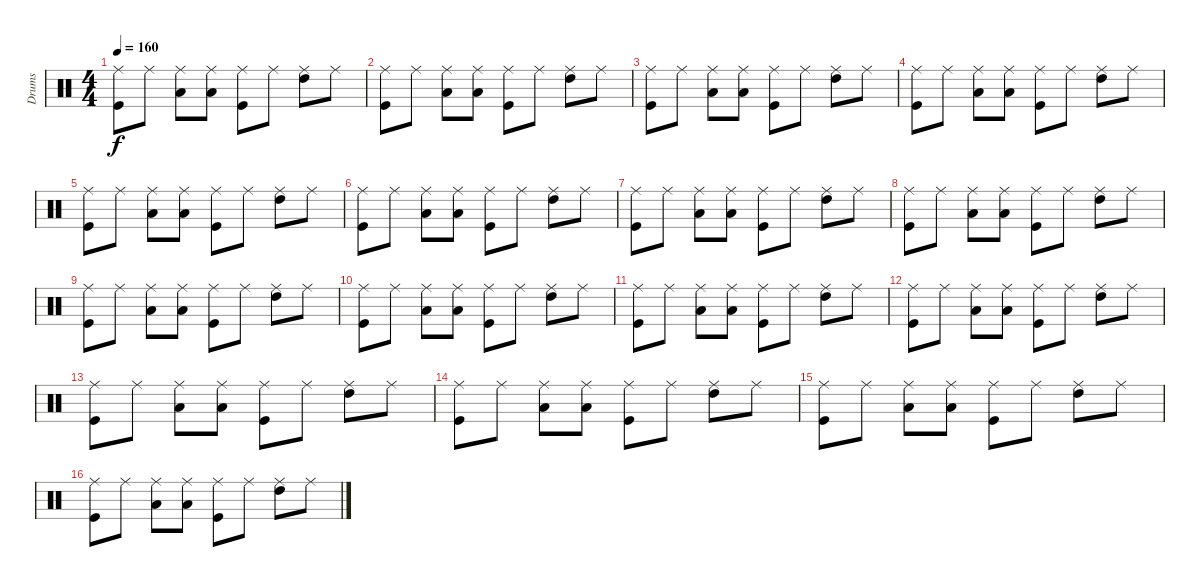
\track ("Drums" "Drums") {instrument percussion}
\staff {score}
\articulation defaults
\ts (4 4)
\tempo 160
\clef neutral
\ks c
("Ride (middle)" "Kick (hit)").8{dy f} "Ride (middle)".8 ("Ride (middle)" "Low Floor Tom (hit)").8 ("Ride (middle)" "Low Floor Tom (hit)").8 ("Ride (middle)" "Kick (hit)").8 "Ride (middle)".8 ("Ride (middle)" "High Tom (hit)").8 "Ride (middle)".8 |
("Ride (middle)" "Kick (hit)").8 "Ride (middle)".8 ("Ride (middle)" "Low Floor Tom (hit)").8 ("Ride (middle)" "Low Floor Tom (hit)").8 ("Ride (middle)" "Kick (hit)").8 "Ride (middle)".8 ("Ride (middle)" "High Tom (hit)").8 "Ride (middle)".8 |
("Ride (middle)" "Kick (hit)").8 "Ride (middle)".8 ("Ride (middle)" "Low Floor Tom (hit)").8 ("Ride (middle)" "Low Floor Tom (hit)").8 ("Ride (middle)" "Kick (hit)").8 "Ride (middle)".8 ("Ride (middle)" "High Tom (hit)").8 "Ride (middle)".8 |
("Ride (middle)" "Kick (hit)").8 "Ride (middle)".8 ("Ride (middle)" "Low Floor Tom (hit)").8 ("Ride (middle)" "Low Floor Tom (hit)").8 ("Ride (middle)" "Kick (hit)").8 "Ride (middle)".8 ("Ride (middle)" "High Tom (hit)").8 "Ride (middle)".8 |
("Ride (middle)" "Kick (hit)").8 "Ride (middle)".8 ("Ride (middle)" "Low Floor Tom (hit)").8 ("Ride (middle)" "Low Floor Tom (hit)").8 ("Ride (middle)" "Kick (hit)").8 "Ride (middle)".8 ("Ride (middle)" "High Tom (hit)").8 "Ride (middle)".8 |
("Ride (middle)" "Kick (hit)").8 "Ride (middle)".8 ("Ride (middle)" "Low Floor Tom (hit)").8 ("Ride (middle)" "Low Floor Tom (hit)").8 ("Ride (middle)" "Kick (hit)").8 "Ride (middle)".8 ("Ride (middle)" "High Tom (hit)").8 "Ride (middle)".8 |
("Ride (middle)" "Kick (hit)").8 "Ride (middle)".8 ("Ride (middle)" "Low Floor Tom (hit)").8 ("Ride (middle)" "Low Floor Tom (hit)").8 ("Ride (middle)" "Kick (hit)").8 "Ride (middle)".8 ("Ride (middle)" "High Tom (hit)").8 "Ride (middle)".8 |
("Ride (middle)" "Kick (hit)").8 "Ride (middle)".8 ("Ride (middle)" "Low Floor Tom (hit)").8 ("Ride (middle)" "Low Floor Tom (hit)").8 ("Ride (middle)" "Kick (hit)").8 "Ride (middle)".8 ("Ride (middle)" "High Tom (hit)").8 "Ride (middle)".8 |
("Ride (middle)" "Kick (hit)").8 "Ride (middle)".8 ("Ride (middle)" "Low Floor Tom (hit)").8 ("Ride (middle)" "Low Floor Tom (hit)").8 ("Ride (middle)" "Kick (hit)").8 "Ride (middle)".8 ("Ride (middle)" "High Tom (hit)").8 "Ride (middle)".8 |
("Ride (middle)" "Kick (hit)").8 "Ride (middle)".8 ("Ride (middle)" "Low Floor Tom (hit)").8 ("Ride (middle)" "Low Floor Tom (hit)").8 ("Ride (middle)" "Kick (hit)").8 "Ride (middle)".8 ("Ride (middle)" "High Tom (hit)").8 "Ride (middle)".8 |
("Ride (middle)" "Kick (hit)").8 "Ride (middle)".8 ("Ride (middle)" "Low Floor Tom (hit)").8 ("Ride (middle)" "Low Floor Tom (hit)").8 ("Ride (middle)" "Kick (hit)").8 "Ride (middle)".8 ("Ride (middle)" "High Tom (hit)").8 "Ride (middle)".8 |
("Ride (middle)" "Kick (hit)").8 "Ride (middle)".8 ("Ride (middle)" "Low Floor Tom (hit)").8 ("Ride (middle)" "Low Floor Tom (hit)").8 ("Ride (middle)" "Kick (hit)").8 "Ride (middle)".8 ("Ride (middle)" "High Tom (hit)").8 "Ride (middle)".8 |
("Ride (middle)" "Kick (hit)").8 "Ride (middle)".8 ("Ride (middle)" "Low Floor Tom (hit)").8 ("Ride (middle)" "Low Floor Tom (hit)").8 ("Ride (middle)" "Kick (hit)").8 "Ride (middle)".8 ("Ride (middle)" "High Tom (hit)").8 "Ride (middle)".8 |
("Ride (middle)" "Kick (hit)").8 "Ride (middle)".8 ("Ride (middle)" "Low Floor Tom (hit)").8 ("Ride (middle)" "Low Floor Tom (hit)").8 ("Ride (middle)" "Kick (hit)").8 "Ride (middle)".8 ("Ride (middle)" "High Tom (hit)").8 "Ride (middle)".8 |
("Ride (middle)" "Kick (hit)").8 "Ride (middle)".8 ("Ride (middle)" "Low Floor Tom (hit)").8 ("Ride (middle)" "Low Floor Tom (hit)").8 ("Ride (middle)" "Kick (hit)").8 "Ride (middle)".8 ("Ride (middle)" "High Tom (hit)").8 "Ride (middle)".8 |
("Ride (middle)" "Kick (hit)").8 "Ride (middle)".8 ("Ride (middle)" "Low Floor Tom (hit)").8 ("Ride (middle)" "Low Floor Tom (hit)").8 ("Ride (middle)" "Kick (hit)").8 "Ride (middle)".8 ("Ride (middle)" "High Tom (hit)").8 "Ride (middle)".8
